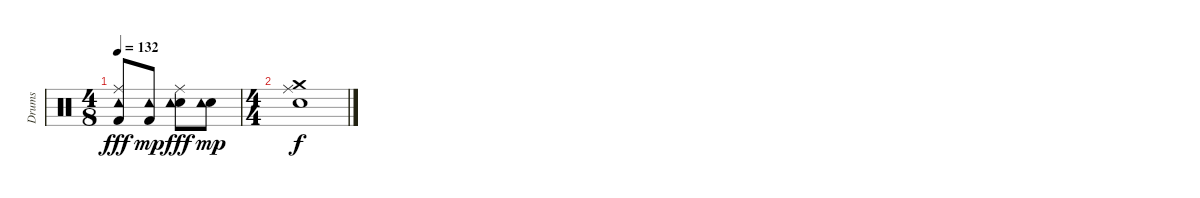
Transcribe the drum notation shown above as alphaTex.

\track ("Drums" "Drums") {instrument percussion}
\staff {score}
\articulation defaults
\ts (4 8)
\tempo 132
\clef neutral
\ks c
("Kick (hit) 2" "Ride (middle)" "Tambourine (hit)").8{dy fff} ("Kick (hit) 2" "Tambourine (hit)").8{dy mp} ("Snare (hit) 2" "Ride (middle)" "Tambourine (hit)").8{dy fff} ("Snare (hit) 2" "Tambourine (hit)").8{dy mp} |
\ts (4 4)
("Crash medium (hit)" "Ride (middle)" "Snare (hit) 2").1{dy f}
